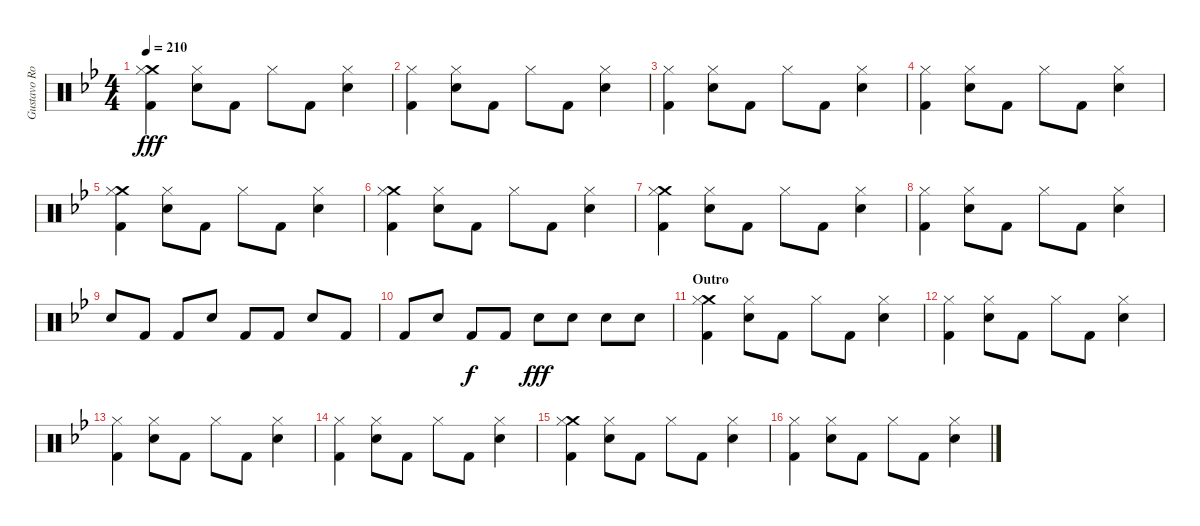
\track ("Gustavo Rowek" "Gustavo Ro") {instrument percussion}
\staff {score}
\articulation defaults
\ts (4 4)
\tempo 210
\clef neutral
\ks gminor
("Crash medium (hit)" "Hi-Hat (closed)" "Kick (hit) 2").4{dy fff} ("Hi-Hat (closed)" "Snare (hit) 2").8 "Kick (hit) 2".8 "Hi-Hat (closed)".8 "Kick (hit) 2".8 ("Hi-Hat (closed)" "Snare (hit) 2").4 |
("Hi-Hat (closed)" "Kick (hit) 2").4 ("Hi-Hat (closed)" "Snare (hit) 2").8 "Kick (hit) 2".8 "Hi-Hat (closed)".8 "Kick (hit) 2".8 ("Hi-Hat (closed)" "Snare (hit) 2").4 |
("Hi-Hat (closed)" "Kick (hit) 2").4 ("Hi-Hat (closed)" "Snare (hit) 2").8 "Kick (hit) 2".8 "Hi-Hat (closed)".8 "Kick (hit) 2".8 ("Hi-Hat (closed)" "Snare (hit) 2").4 |
("Hi-Hat (closed)" "Kick (hit) 2").4 ("Hi-Hat (closed)" "Snare (hit) 2").8 "Kick (hit) 2".8 "Hi-Hat (closed)".8 "Kick (hit) 2".8 ("Hi-Hat (closed)" "Snare (hit) 2").4 |
("Crash medium (hit)" "Hi-Hat (closed)" "Kick (hit) 2").4 ("Hi-Hat (closed)" "Snare (hit) 2").8 "Kick (hit) 2".8 "Hi-Hat (closed)".8 "Kick (hit) 2".8 ("Hi-Hat (closed)" "Snare (hit) 2").4 |
("Crash medium (hit)" "Hi-Hat (closed)" "Kick (hit) 2").4 ("Hi-Hat (closed)" "Snare (hit) 2").8 "Kick (hit) 2".8 "Hi-Hat (closed)".8 "Kick (hit) 2".8 ("Hi-Hat (closed)" "Snare (hit) 2").4 |
("Crash medium (hit)" "Hi-Hat (closed)" "Kick (hit) 2").4 ("Hi-Hat (closed)" "Snare (hit) 2").8 "Kick (hit) 2".8 "Hi-Hat (closed)".8 "Kick (hit) 2".8 ("Hi-Hat (closed)" "Snare (hit) 2").4 |
("Hi-Hat (closed)" "Kick (hit) 2").4 ("Hi-Hat (closed)" "Snare (hit) 2").8 "Kick (hit) 2".8 "Hi-Hat (closed)".8 "Kick (hit) 2".8 ("Hi-Hat (closed)" "Snare (hit) 2").4 |
"Snare (hit) 2".8 "Kick (hit) 2".8 "Kick (hit) 2".8 "Snare (hit) 2".8 "Kick (hit) 2".8 "Kick (hit) 2".8 "Snare (hit) 2".8 "Kick (hit) 2".8 |
"Kick (hit) 2".8 "Snare (hit) 2".8 "Kick (hit) 2".8{dy f} "Kick (hit) 2".8 "Snare (hit) 2".8{dy fff} "Snare (hit) 2".8 "Snare (hit) 2".8 "Snare (hit) 2".8 |
\section ("" "Outro")
("Crash medium (hit)" "Hi-Hat (closed)" "Kick (hit) 2").4 ("Hi-Hat (closed)" "Snare (hit) 2").8 "Kick (hit) 2".8 "Hi-Hat (closed)".8 "Kick (hit) 2".8 ("Hi-Hat (closed)" "Snare (hit) 2").4 |
("Hi-Hat (closed)" "Kick (hit) 2").4 ("Hi-Hat (closed)" "Snare (hit) 2").8 "Kick (hit) 2".8 "Hi-Hat (closed)".8 "Kick (hit) 2".8 ("Hi-Hat (closed)" "Snare (hit) 2").4 |
("Hi-Hat (closed)" "Kick (hit) 2").4 ("Hi-Hat (closed)" "Snare (hit) 2").8 "Kick (hit) 2".8 "Hi-Hat (closed)".8 "Kick (hit) 2".8 ("Hi-Hat (closed)" "Snare (hit) 2").4 |
("Hi-Hat (closed)" "Kick (hit) 2").4 ("Hi-Hat (closed)" "Snare (hit) 2").8 "Kick (hit) 2".8 "Hi-Hat (closed)".8 "Kick (hit) 2".8 ("Hi-Hat (closed)" "Snare (hit) 2").4 |
("Crash medium (hit)" "Hi-Hat (closed)" "Kick (hit) 2").4 ("Hi-Hat (closed)" "Snare (hit) 2").8 "Kick (hit) 2".8 "Hi-Hat (closed)".8 "Kick (hit) 2".8 ("Hi-Hat (closed)" "Snare (hit) 2").4 |
("Hi-Hat (closed)" "Kick (hit) 2").4 ("Hi-Hat (closed)" "Snare (hit) 2").8 "Kick (hit) 2".8 "Hi-Hat (closed)".8 "Kick (hit) 2".8 ("Hi-Hat (closed)" "Snare (hit) 2").4
